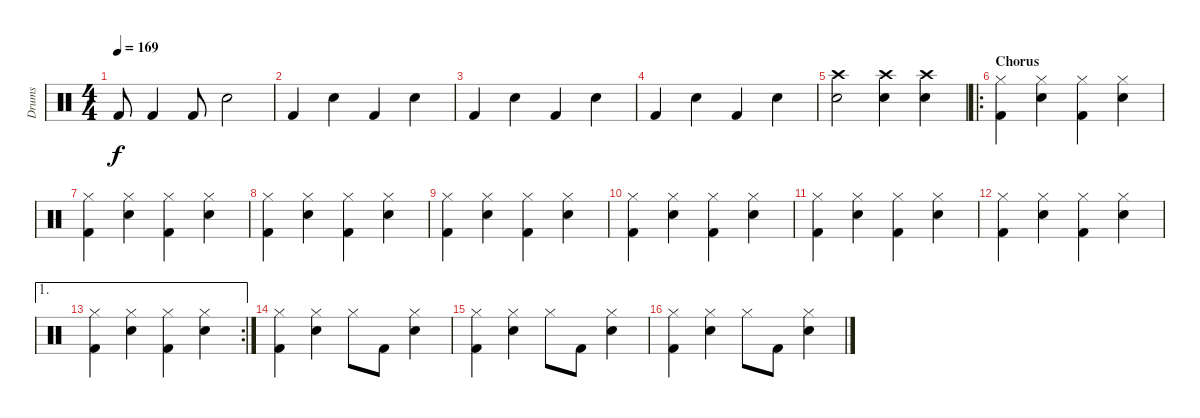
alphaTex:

\track ("Drums" "Drums") {instrument percussion}
\staff {score}
\articulation defaults
\ts (4 4)
\tempo 169
\clef neutral
\ks c "Kick (hit) 2".8{dy f} "Kick (hit) 2".4 "Kick (hit) 2".8 "Snare (hit) 2".2
|
"Kick (hit) 2".4 "Snare (hit) 2".4 "Kick (hit) 2".4 "Snare (hit) 2".4 |
"Kick (hit) 2".4 "Snare (hit) 2".4 "Kick (hit) 2".4 "Snare (hit) 2".4 |
"Kick (hit) 2".4 "Snare (hit) 2".4 "Kick (hit) 2".4 "Snare (hit) 2".4 |
("Crash high (hit)" "Snare (hit) 2").2 ("Crash high (hit)" "Snare (hit) 2").4 ("Crash high (hit)" "Snare (hit) 2").4 |
\ro
\section ("" "Chorus")
("Hi-Hat (closed)" "Kick (hit) 2").4 ("Hi-Hat (closed)" "Snare (hit) 2").4 ("Hi-Hat (closed)" "Kick (hit) 2").4 ("Hi-Hat (closed)" "Snare (hit) 2").4 |
("Hi-Hat (closed)" "Kick (hit) 2").4 ("Hi-Hat (closed)" "Snare (hit) 2").4 ("Hi-Hat (closed)" "Kick (hit) 2").4 ("Hi-Hat (closed)" "Snare (hit) 2").4 |
("Hi-Hat (closed)" "Kick (hit) 2").4 ("Hi-Hat (closed)" "Snare (hit) 2").4 ("Hi-Hat (closed)" "Kick (hit) 2").4 ("Hi-Hat (closed)" "Snare (hit) 2").4 |
("Hi-Hat (closed)" "Kick (hit) 2").4 ("Hi-Hat (closed)" "Snare (hit) 2").4 ("Hi-Hat (closed)" "Kick (hit) 2").4 ("Hi-Hat (closed)" "Snare (hit) 2").4 |
("Hi-Hat (closed)" "Kick (hit) 2").4 ("Hi-Hat (closed)" "Snare (hit) 2").4 ("Hi-Hat (closed)" "Kick (hit) 2").4 ("Hi-Hat (closed)" "Snare (hit) 2").4 |
("Hi-Hat (closed)" "Kick (hit) 2").4 ("Hi-Hat (closed)" "Snare (hit) 2").4 ("Hi-Hat (closed)" "Kick (hit) 2").4 ("Hi-Hat (closed)" "Snare (hit) 2").4 |
("Hi-Hat (closed)" "Kick (hit) 2").4 ("Hi-Hat (closed)" "Snare (hit) 2").4 ("Hi-Hat (closed)" "Kick (hit) 2").4 ("Hi-Hat (closed)" "Snare (hit) 2").4 |
\ae 1
\rc 2
("Hi-Hat (closed)" "Kick (hit) 2").4 ("Hi-Hat (closed)" "Snare (hit) 2").4 ("Hi-Hat (closed)" "Kick (hit) 2").4 ("Hi-Hat (closed)" "Snare (hit) 2").4 |
("Hi-Hat (closed)" "Kick (hit) 2").4 ("Hi-Hat (closed)" "Snare (hit) 2").4 "Hi-Hat (closed)".8 "Kick (hit) 2".8 ("Hi-Hat (closed)" "Snare (hit) 2").4 |
("Hi-Hat (closed)" "Kick (hit) 2").4 ("Hi-Hat (closed)" "Snare (hit) 2").4 "Hi-Hat (closed)".8 "Kick (hit) 2".8 ("Hi-Hat (closed)" "Snare (hit) 2").4 |
("Hi-Hat (closed)" "Kick (hit) 2").4 ("Hi-Hat (closed)" "Snare (hit) 2").4 "Hi-Hat (closed)".8 "Kick (hit) 2".8 ("Hi-Hat (closed)" "Snare (hit) 2").4
